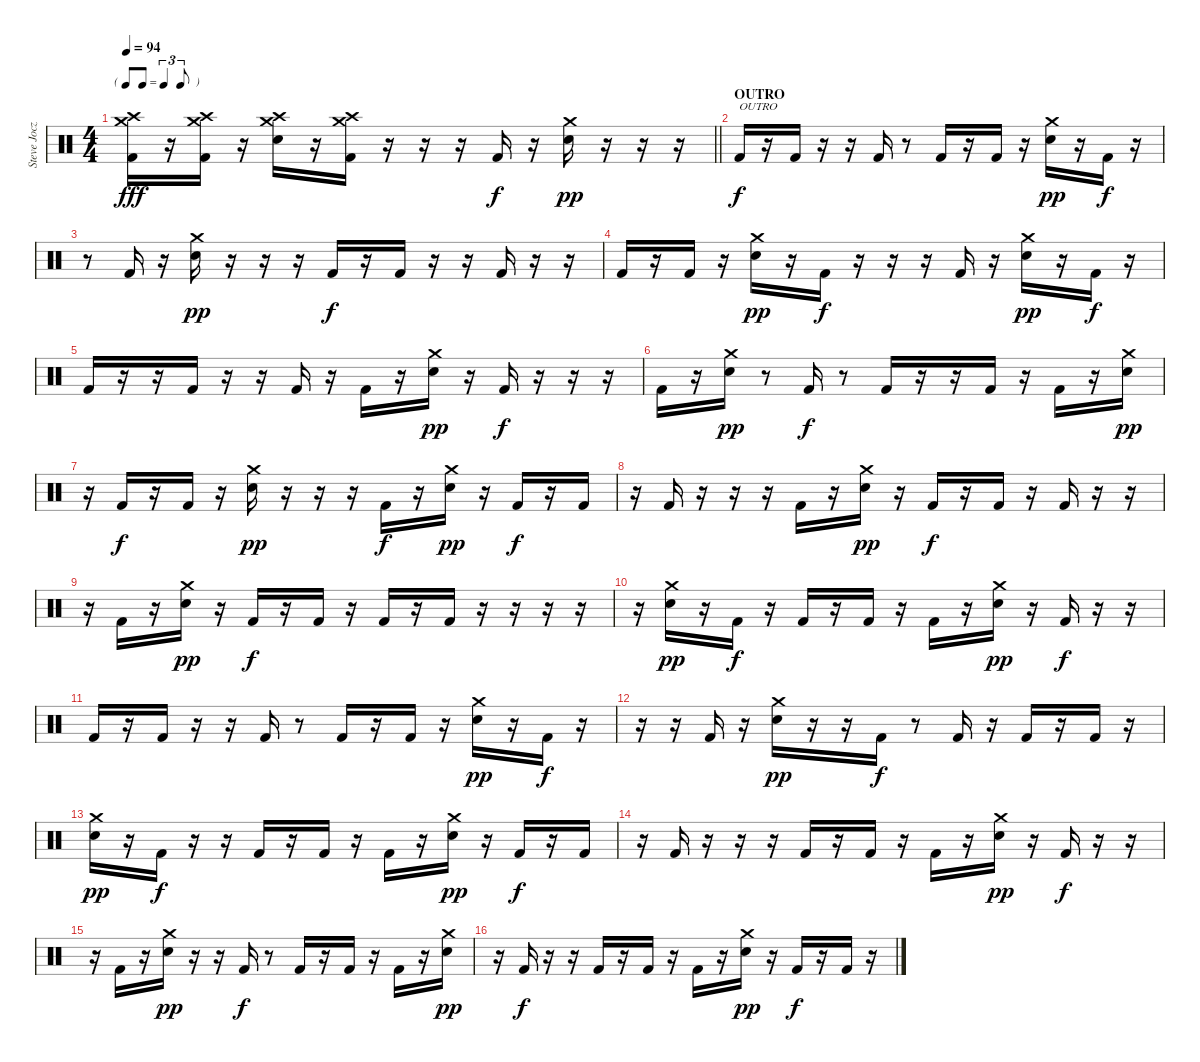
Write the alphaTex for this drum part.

\track ("Steve Jocz   \"Stevo32\"        (drums)" "Steve Jocz") {instrument percussion}
\staff {score}
\articulation defaults
\ts (4 4)
\tf triplet8th
\tempo 94
\clef neutral
\barLineRight lightlight
\ks c
("Crash high (hit)" "Crash medium (hit)" "Kick (hit) 2").16{dy fff} r.16 ("Crash high (hit)" "Crash medium (hit)" "Kick (hit) 2").16 r.16 ("Crash high (hit)" "Crash medium (hit)" "Electric Snare (hit)").16 r.16 ("Crash high (hit)" "Crash medium (hit)" "Kick (hit) 2").16 r.16 r.16 r.16 "Kick (hit) 2".16{dy f} r.16 ("Crash medium (hit)" "Electric Snare (hit)").16{dy pp} r.16 r.16 r.16 |
\section ("" "OUTRO")
"Kick (hit) 2".16{txt "OUTRO" dy f} r.16 "Kick (hit) 2".16 r.16 r.16 "Kick (hit) 2".16 r.8 "Kick (hit) 2".16 r.16 "Kick (hit) 2".16 r.16 ("Crash medium (hit)" "Electric Snare (hit)").16{dy pp} r.16 "Kick (hit) 2".16{dy f} r.16 |
r.8 "Kick (hit) 2".16 r.16 ("Crash medium (hit)" "Electric Snare (hit)").16{dy pp} r.16 r.16 r.16 "Kick (hit) 2".16{dy f} r.16 "Kick (hit) 2".16 r.16 r.16 "Kick (hit) 2".16 r.16 r.16 |
"Kick (hit) 2".16 r.16 "Kick (hit) 2".16 r.16 ("Crash medium (hit)" "Electric Snare (hit)").16{dy pp} r.16 "Kick (hit) 2".16{dy f} r.16 r.16 r.16 "Kick (hit) 2".16 r.16 ("Crash medium (hit)" "Electric Snare (hit)").16{dy pp} r.16 "Kick (hit) 2".16{dy f} r.16 |
"Kick (hit) 2".16 r.16 r.16 "Kick (hit) 2".16 r.16 r.16 "Kick (hit) 2".16 r.16 "Kick (hit) 2".16 r.16 ("Crash medium (hit)" "Electric Snare (hit)").16{dy pp} r.16 "Kick (hit) 2".16{dy f} r.16 r.16 r.16 |
"Kick (hit) 2".16 r.16 ("Crash medium (hit)" "Electric Snare (hit)").16{dy pp} r.8 "Kick (hit) 2".16{dy f} r.8 "Kick (hit) 2".16 r.16 r.16 "Kick (hit) 2".16 r.16 "Kick (hit) 2".16 r.16 ("Crash medium (hit)" "Electric Snare (hit)").16{dy pp} |
r.16 "Kick (hit) 2".16{dy f} r.16 "Kick (hit) 2".16 r.16 ("Crash medium (hit)" "Electric Snare (hit)").16{dy pp} r.16 r.16 r.16 "Kick (hit) 2".16{dy f} r.16 ("Crash medium (hit)" "Electric Snare (hit)").16{dy pp} r.16 "Kick (hit) 2".16{dy f} r.16 "Kick (hit) 2".16 |
r.16 "Kick (hit) 2".16 r.16 r.16 r.16 "Kick (hit) 2".16 r.16 ("Crash medium (hit)" "Electric Snare (hit)").16{dy pp} r.16 "Kick (hit) 2".16{dy f} r.16 "Kick (hit) 2".16 r.16 "Kick (hit) 2".16 r.16 r.16 |
r.16 "Kick (hit) 2".16 r.16 ("Crash medium (hit)" "Electric Snare (hit)").16{dy pp} r.16 "Kick (hit) 2".16{dy f} r.16 "Kick (hit) 2".16 r.16 "Kick (hit) 2".16 r.16 "Kick (hit) 2".16 r.16 r.16 r.16 r.16 |
r.16 ("Crash medium (hit)" "Electric Snare (hit)").16{dy pp} r.16 "Kick (hit) 2".16{dy f} r.16 "Kick (hit) 2".16 r.16 "Kick (hit) 2".16 r.16 "Kick (hit) 2".16 r.16 ("Crash medium (hit)" "Electric Snare (hit)").16{dy pp} r.16 "Kick (hit) 2".16{dy f} r.16 r.16 |
"Kick (hit) 2".16 r.16 "Kick (hit) 2".16 r.16 r.16 "Kick (hit) 2".16 r.8 "Kick (hit) 2".16 r.16 "Kick (hit) 2".16 r.16 ("Crash medium (hit)" "Electric Snare (hit)").16{dy pp} r.16 "Kick (hit) 2".16{dy f} r.16 |
r.16 r.16 "Kick (hit) 2".16 r.16 ("Crash medium (hit)" "Electric Snare (hit)").16{dy pp} r.16 r.16 "Kick (hit) 2".16{dy f} r.8 "Kick (hit) 2".16 r.16 "Kick (hit) 2".16 r.16 "Kick (hit) 2".16 r.16 |
("Crash medium (hit)" "Electric Snare (hit)").16{dy pp} r.16 "Kick (hit) 2".16{dy f} r.16 r.16 "Kick (hit) 2".16 r.16 "Kick (hit) 2".16 r.16 "Kick (hit) 2".16 r.16 ("Crash medium (hit)" "Electric Snare (hit)").16{dy pp} r.16 "Kick (hit) 2".16{dy f} r.16 "Kick (hit) 2".16 |
r.16 "Kick (hit) 2".16 r.16 r.16 r.16 "Kick (hit) 2".16 r.16 "Kick (hit) 2".16 r.16 "Kick (hit) 2".16 r.16 ("Crash medium (hit)" "Electric Snare (hit)").16{dy pp} r.16 "Kick (hit) 2".16{dy f} r.16 r.16 |
r.16 "Kick (hit) 2".16 r.16 ("Crash medium (hit)" "Electric Snare (hit)").16{dy pp} r.16 r.16 "Kick (hit) 2".16{dy f} r.8 "Kick (hit) 2".16 r.16 "Kick (hit) 2".16 r.16 "Kick (hit) 2".16 r.16 ("Crash medium (hit)" "Electric Snare (hit)").16{dy pp} |
r.16 "Kick (hit) 2".16{dy f} r.16 r.16 "Kick (hit) 2".16 r.16 "Kick (hit) 2".16 r.16 "Kick (hit) 2".16 r.16 ("Crash medium (hit)" "Electric Snare (hit)").16{dy pp} r.16 "Kick (hit) 2".16{dy f} r.16 "Kick (hit) 2".16 r.16
